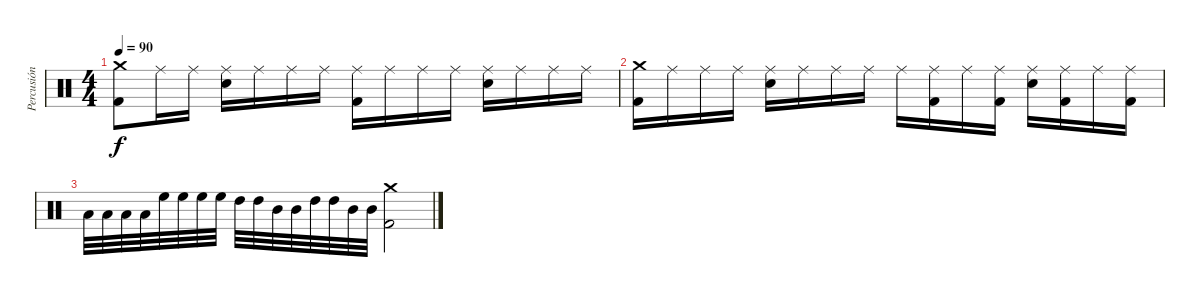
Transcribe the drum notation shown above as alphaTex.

\track ("Percusión" "Percusión") {instrument percussion}
\staff {score}
\articulation defaults
\ts (4 4)
\tempo 90
\clef neutral
\ks c
("Crash medium (hit)" "Kick (hit) 2").8{dy f} "Ride (middle)".16 "Ride (middle)".16 ("Ride (middle)" "Snare (hit) 2").16 "Ride (middle)".16 "Ride (middle)".16 "Ride (middle)".16 ("Ride (middle)" "Kick (hit) 2").16 "Ride (middle)".16 "Ride (middle)".16 "Ride (middle)".16 ("Ride (middle)" "Snare (hit) 2").16 "Ride (middle)".16 "Ride (middle)".16 "Ride (middle)".16 |
("Crash medium (hit)" "Kick (hit) 2").16 "Ride (middle)".16 "Ride (middle)".16 "Ride (middle)".16 ("Ride (middle)" "Snare (hit) 2").16 "Ride (middle)".16 "Ride (middle)".16 "Ride (middle)".16 "Ride (middle)".16 ("Ride (middle)" "Kick (hit) 2").16 "Ride (middle)".16 ("Ride (middle)" "Kick (hit) 2").16 ("Ride (middle)" "Snare (hit) 2").16 ("Ride (middle)" "Kick (hit) 2").16 "Ride (middle)".16 ("Ride (middle)" "Kick (hit) 2").16 |
"Low Floor Tom (hit)".32 "Low Floor Tom (hit)".32 "Low Floor Tom (hit)".32 "Low Floor Tom (hit)".32 "High Floor Tom (hit)".32 "High Floor Tom (hit)".32 "High Floor Tom (hit)".32 "High Floor Tom (hit)".32 "High Tom (hit)".32 "High Tom (hit)".32 "Mid Tom (hit)".32 "Mid Tom (hit)".32 "High Tom (hit)".32 "High Tom (hit)".32 "Mid Tom (hit)".32 "Mid Tom (hit)".32 ("Crash medium (hit)" "Kick (hit) 2").2
